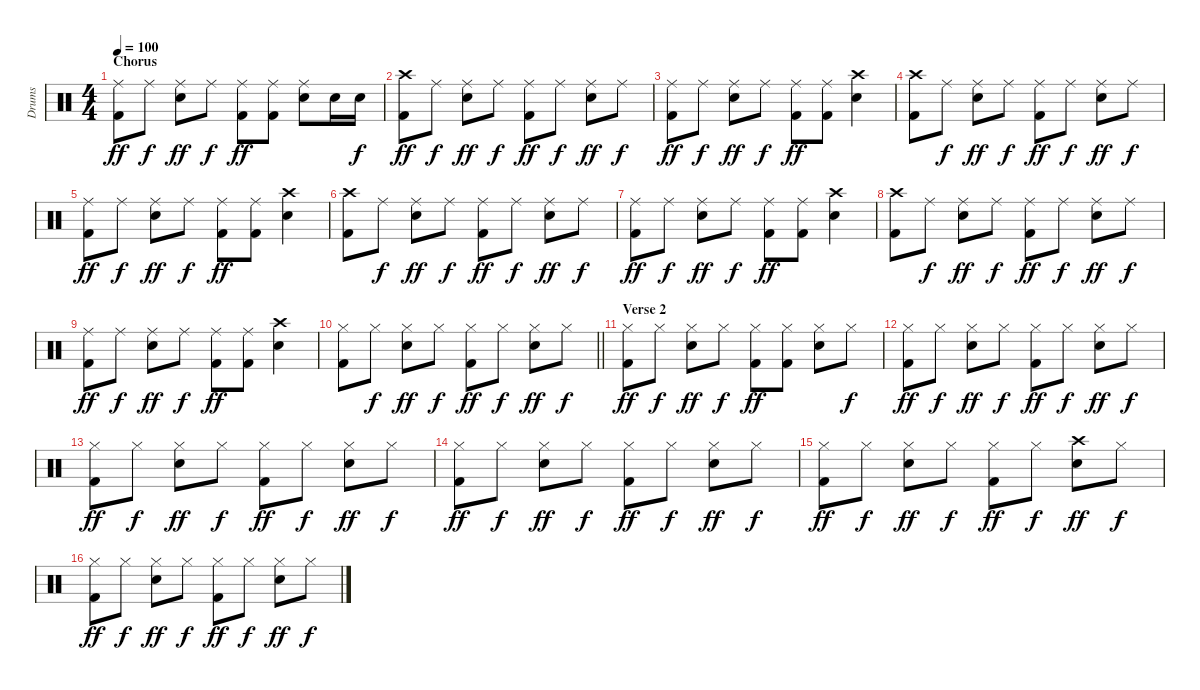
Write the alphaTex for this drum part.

\track ("Drums" "Drums") {instrument percussion}
\staff {score}
\articulation defaults
\ts (4 4)
\section ("" "Chorus")
\tempo 100
\clef neutral
\ks c
("Ride (middle)" "Kick (hit) 2").8{dy ff} "Ride (middle)".8{dy f} ("Ride (middle)" "Snare (hit) 2").8{dy ff} "Ride (middle)".8{dy f} ("Ride (middle)" "Kick (hit) 2").8{dy ff} ("Ride (middle)" "Kick (hit) 2").8 ("Ride (middle)" "Snare (hit) 2").8 "Snare (hit) 2".16 "Snare (hit) 2".16{dy f} |
("Crash high (hit)" "Kick (hit) 2").8{dy ff} "Ride (middle)".8{dy f} ("Ride (middle)" "Snare (hit) 2").8{dy ff} "Ride (middle)".8{dy f} ("Ride (middle)" "Kick (hit) 2").8{dy ff} "Ride (middle)".8{dy f} ("Ride (middle)" "Snare (hit) 2").8{dy ff} "Ride (middle)".8{dy f} |
("Ride (middle)" "Kick (hit) 2").8{dy ff} "Ride (middle)".8{dy f} ("Ride (middle)" "Snare (hit) 2").8{dy ff} "Ride (middle)".8{dy f} ("Ride (middle)" "Kick (hit) 2").8{dy ff} ("Ride (middle)" "Kick (hit) 2").8 ("Crash high (hit)" "Snare (hit) 2").4 |
("Crash high (hit)" "Kick (hit) 2").8 "Ride (middle)".8{dy f} ("Ride (middle)" "Snare (hit) 2").8{dy ff} "Ride (middle)".8{dy f} ("Ride (middle)" "Kick (hit) 2").8{dy ff} "Ride (middle)".8{dy f} ("Ride (middle)" "Snare (hit) 2").8{dy ff} "Ride (middle)".8{dy f} |
("Ride (middle)" "Kick (hit) 2").8{dy ff} "Ride (middle)".8{dy f} ("Ride (middle)" "Snare (hit) 2").8{dy ff} "Ride (middle)".8{dy f} ("Ride (middle)" "Kick (hit) 2").8{dy ff} ("Ride (middle)" "Kick (hit) 2").8 ("Crash high (hit)" "Snare (hit) 2").4 |
("Crash high (hit)" "Kick (hit) 2").8 "Ride (middle)".8{dy f} ("Ride (middle)" "Snare (hit) 2").8{dy ff} "Ride (middle)".8{dy f} ("Ride (middle)" "Kick (hit) 2").8{dy ff} "Ride (middle)".8{dy f} ("Ride (middle)" "Snare (hit) 2").8{dy ff} "Ride (middle)".8{dy f} |
("Ride (middle)" "Kick (hit) 2").8{dy ff} "Ride (middle)".8{dy f} ("Ride (middle)" "Snare (hit) 2").8{dy ff} "Ride (middle)".8{dy f} ("Ride (middle)" "Kick (hit) 2").8{dy ff} ("Ride (middle)" "Kick (hit) 2").8 ("Crash high (hit)" "Snare (hit) 2").4 |
("Crash high (hit)" "Kick (hit) 2").8 "Ride (middle)".8{dy f} ("Ride (middle)" "Snare (hit) 2").8{dy ff} "Ride (middle)".8{dy f} ("Ride (middle)" "Kick (hit) 2").8{dy ff} "Ride (middle)".8{dy f} ("Ride (middle)" "Snare (hit) 2").8{dy ff} "Ride (middle)".8{dy f} |
("Ride (middle)" "Kick (hit) 2").8{dy ff} "Ride (middle)".8{dy f} ("Ride (middle)" "Snare (hit) 2").8{dy ff} "Ride (middle)".8{dy f} ("Ride (middle)" "Kick (hit) 2").8{dy ff} ("Ride (middle)" "Kick (hit) 2").8 ("Crash high (hit)" "Snare (hit) 2").4 |
\barLineRight lightlight
("Hi-Hat (closed)" "Kick (hit) 2").8 "Hi-Hat (closed)".8{dy f} ("Hi-Hat (closed)" "Snare (hit) 2").8{dy ff} "Hi-Hat (closed)".8{dy f} ("Hi-Hat (closed)" "Kick (hit) 2").8{dy ff} "Hi-Hat (closed)".8{dy f} ("Hi-Hat (closed)" "Snare (hit) 2").8{dy ff} "Hi-Hat (closed)".8{dy f} |
\section ("" "Verse 2")
("Hi-Hat (closed)" "Kick (hit) 2").8{dy ff} "Hi-Hat (closed)".8{dy f} ("Hi-Hat (closed)" "Snare (hit) 2").8{dy ff} "Hi-Hat (closed)".8{dy f} ("Hi-Hat (closed)" "Kick (hit) 2").8{dy ff} ("Hi-Hat (closed)" "Kick (hit) 2").8 ("Hi-Hat (closed)" "Snare (hit) 2").8 "Hi-Hat (closed)".8{dy f} |
("Hi-Hat (closed)" "Kick (hit) 2").8{dy ff} "Hi-Hat (closed)".8{dy f} ("Hi-Hat (closed)" "Snare (hit) 2").8{dy ff} "Hi-Hat (closed)".8{dy f} ("Hi-Hat (closed)" "Kick (hit) 2").8{dy ff} "Hi-Hat (closed)".8{dy f} ("Hi-Hat (closed)" "Snare (hit) 2").8{dy ff} "Hi-Hat (closed)".8{dy f} |
("Hi-Hat (closed)" "Kick (hit) 2").8{dy ff} "Hi-Hat (closed)".8{dy f} ("Hi-Hat (closed)" "Snare (hit) 2").8{dy ff} "Hi-Hat (closed)".8{dy f} ("Hi-Hat (closed)" "Kick (hit) 2").8{dy ff} "Hi-Hat (closed)".8{dy f} ("Hi-Hat (closed)" "Snare (hit) 2").8{dy ff} "Hi-Hat (closed)".8{dy f} |
("Hi-Hat (closed)" "Kick (hit) 2").8{dy ff} "Hi-Hat (closed)".8{dy f} ("Hi-Hat (closed)" "Snare (hit) 2").8{dy ff} "Hi-Hat (closed)".8{dy f} ("Hi-Hat (closed)" "Kick (hit) 2").8{dy ff} "Hi-Hat (closed)".8{dy f} ("Hi-Hat (closed)" "Snare (hit) 2").8{dy ff} "Hi-Hat (closed)".8{dy f} |
("Hi-Hat (closed)" "Kick (hit) 2").8{dy ff} "Hi-Hat (closed)".8{dy f} ("Hi-Hat (closed)" "Snare (hit) 2").8{dy ff} "Hi-Hat (closed)".8{dy f} ("Hi-Hat (closed)" "Kick (hit) 2").8{dy ff} "Hi-Hat (closed)".8{dy f} ("Crash high (hit)" "Snare (hit) 2").8{dy ff} "Hi-Hat (closed)".8{dy f} |
("Hi-Hat (closed)" "Kick (hit) 2").8{dy ff} "Hi-Hat (closed)".8{dy f} ("Hi-Hat (closed)" "Snare (hit) 2").8{dy ff} "Hi-Hat (closed)".8{dy f} ("Hi-Hat (closed)" "Kick (hit) 2").8{dy ff} "Hi-Hat (closed)".8{dy f} ("Hi-Hat (closed)" "Snare (hit) 2").8{dy ff} "Hi-Hat (closed)".8{dy f}
